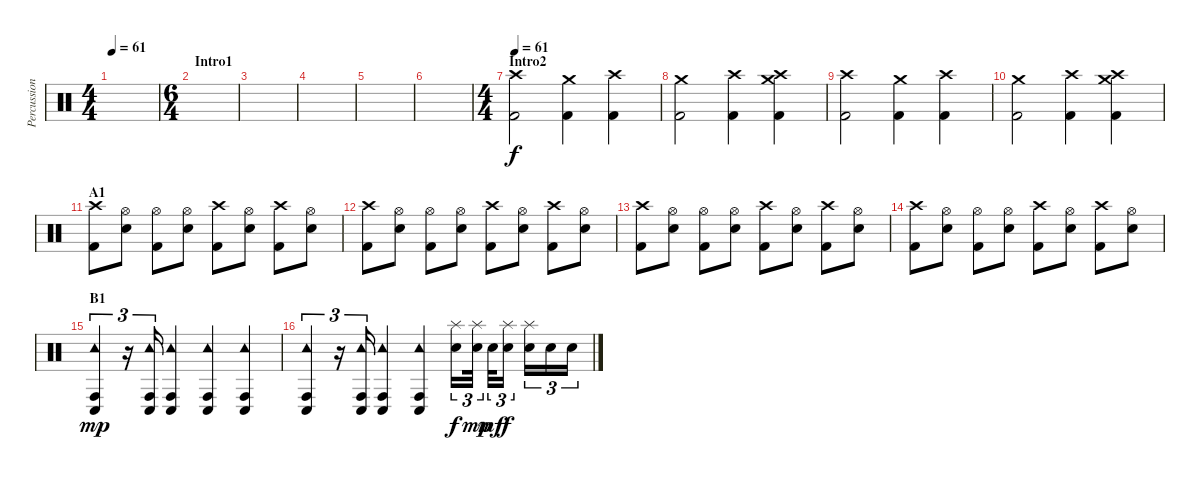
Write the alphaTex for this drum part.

\track ("Percussion" "Percussion") {instrument percussion}
\staff {score}
\articulation defaults
\ts (4 4)
\tempo 61
\tempo 70
\tempo 61
\clef neutral
\ks c
|
\ts (6 4)
\section ("" "Intro1")
|
|
|
|
|
\ts (4 4)
\section ("" "Intro2")
\tempo 61
("Crash high (hit)" "Kick (hit) 2").2 ("Crash medium (hit)" "Kick (hit) 2").4 ("Crash high (hit)" "Kick (hit) 2").4 |
("Crash medium (hit)" "Kick (hit) 2").2 ("Crash high (hit)" "Kick (hit) 2").4 ("Crash medium (hit)" "Crash high (hit)" "Kick (hit) 2").4 |
("Crash high (hit)" "Kick (hit) 2").2 ("Crash medium (hit)" "Kick (hit) 2").4 ("Crash high (hit)" "Kick (hit) 2").4 |
("Crash medium (hit)" "Kick (hit) 2").2 ("Crash high (hit)" "Kick (hit) 2").4 ("Crash medium (hit)" "Crash high (hit)" "Kick (hit) 2").4 |
\section ("" "A1")
("Crash high (hit)" "Kick (hit) 2").8 ("Hi-Hat (open)" "Electric Snare (hit)").8 ("Hi-Hat (open)" "Kick (hit) 2").8 ("Hi-Hat (open)" "Electric Snare (hit)").8 ("Crash high (hit)" "Kick (hit) 2").8 ("Hi-Hat (open)" "Electric Snare (hit)").8 ("Crash high (hit)" "Kick (hit) 2").8 ("Hi-Hat (open)" "Electric Snare (hit)").8 |
("Crash high (hit)" "Kick (hit) 2").8 ("Hi-Hat (open)" "Electric Snare (hit)").8 ("Hi-Hat (open)" "Kick (hit) 2").8 ("Hi-Hat (open)" "Electric Snare (hit)").8 ("Crash high (hit)" "Kick (hit) 2").8 ("Hi-Hat (open)" "Electric Snare (hit)").8 ("Crash high (hit)" "Kick (hit) 2").8 ("Hi-Hat (open)" "Electric Snare (hit)").8 |
("Crash high (hit)" "Kick (hit) 2").8 ("Hi-Hat (open)" "Electric Snare (hit)").8 ("Hi-Hat (open)" "Kick (hit) 2").8 ("Hi-Hat (open)" "Electric Snare (hit)").8 ("Crash high (hit)" "Kick (hit) 2").8 ("Hi-Hat (open)" "Electric Snare (hit)").8 ("Crash high (hit)" "Kick (hit) 2").8 ("Hi-Hat (open)" "Electric Snare (hit)").8 |
("Crash high (hit)" "Kick (hit) 2").8 ("Hi-Hat (open)" "Electric Snare (hit)").8 ("Hi-Hat (open)" "Kick (hit) 2").8 ("Hi-Hat (open)" "Electric Snare (hit)").8 ("Crash high (hit)" "Kick (hit) 2").8 ("Hi-Hat (open)" "Electric Snare (hit)").8 ("Crash high (hit)" "Kick (hit) 2").8 ("Hi-Hat (open)" "Electric Snare (hit)").8 |
\section ("" "B1")
("Tambourine (hit)" "Conga low (hit)" "Conga high (hit)").4{tu (3 2) dy mp} r.16{tu (3 2)} ("Tambourine (hit)" "Conga low (hit)" "Conga high (hit)").16{tu (3 2)} ("Tambourine (hit)" "Conga low (hit)" "Conga high (hit)").4 ("Tambourine (hit)" "Conga low (hit)" "Conga high (hit)").4 ("Tambourine (hit)" "Conga low (hit)" "Conga high (hit)").4 |
("Tambourine (hit)" "Conga low (hit)" "Conga high (hit)").4{tu (3 2)} r.16{tu (3 2)} ("Tambourine (hit)" "Conga low (hit)" "Conga high (hit)").16{tu (3 2)} ("Tambourine (hit)" "Conga low (hit)" "Conga high (hit)").4 ("Tambourine (hit)" "Conga low (hit)" "Conga high (hit)").4 ("Splash (hit)" "Electric Snare (hit)").16{tu (3 2) dy f} ("Splash (hit)" "Electric Snare (hit)").32{tu (3 2) dy mp} "Electric Snare (hit)".32{tu (3 2) dy mf} ("Splash (hit)" "Electric Snare (hit)").16{tu (3 2) dy f} ("Splash (hit)" "Electric Snare (hit)").16{tu (3 2)} "Electric Snare (hit)".16{tu (3 2)} "Electric Snare (hit)".16{tu (3 2)}
